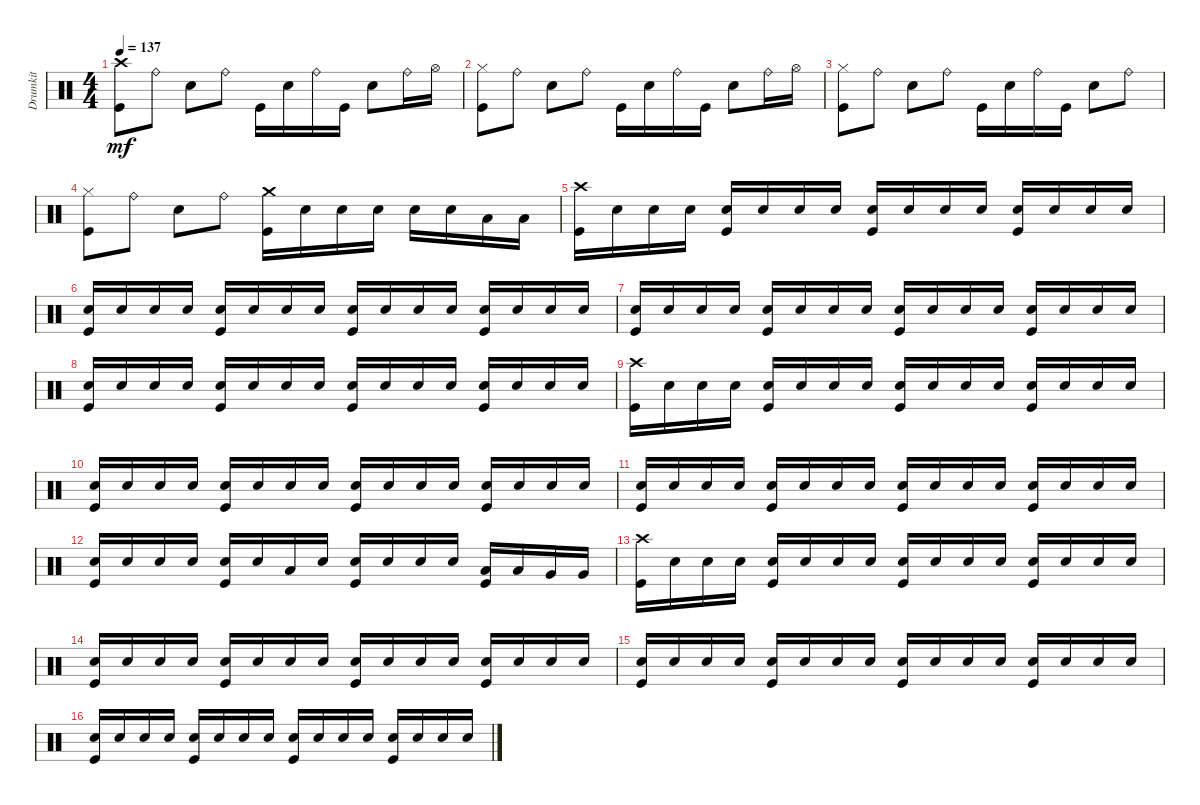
\track ("Drumkit" "Drumkit") {instrument percussion}
\staff {score}
\articulation defaults
\ts (4 4)
\tempo 137
\clef neutral
\ks c
("Crash high (hit)" "Kick (hit)").8{dy mf} "Ride (bell)".8 "Snare (hit) 2".8 "Ride (bell)".8 "Kick (hit)".16 "Snare (hit) 2".16 "Ride (bell)".16 "Kick (hit)".16 "Snare (hit) 2".8 "Ride (bell)".16 "Hi-Hat (open)".16 |
("Kick (hit)" "Hi-Hat (closed)").8 "Ride (bell)".8 "Snare (hit) 2".8 "Ride (bell)".8 "Kick (hit)".16 "Snare (hit) 2".16 "Ride (bell)".16 "Kick (hit)".16 "Snare (hit) 2".8 "Ride (bell)".16 "Hi-Hat (open)".16 |
("Kick (hit)" "Hi-Hat (closed)").8 "Ride (bell)".8 "Snare (hit) 2".8 "Ride (bell)".8 "Kick (hit)".16 "Snare (hit) 2".16 "Ride (bell)".16 "Kick (hit)".16 "Snare (hit) 2".8 "Ride (bell)".8 |
("Kick (hit)" "Hi-Hat (closed)").8 "Ride (bell)".8 "Snare (hit) 2".8 "Ride (bell)".8 ("Crash medium (hit)" "Kick (hit)").16 "Snare (hit) 2".16 "Snare (hit) 2".16 "Snare (hit) 2".16 "Snare (hit) 2".16 "Snare (hit) 2".16 "Low Tom (hit)".16 "Low Tom (hit)".16 |
("Crash high (hit)" "Kick (hit)").16 "Snare (hit) 2".16 "Snare (hit) 2".16 "Snare (hit) 2".16 ("Snare (hit) 2" "Kick (hit)").16 "Snare (hit) 2".16 "Snare (hit) 2".16 "Snare (hit) 2".16 ("Snare (hit) 2" "Kick (hit)").16 "Snare (hit) 2".16 "Snare (hit) 2".16 "Snare (hit) 2".16 ("Snare (hit) 2" "Kick (hit)").16 "Snare (hit) 2".16 "Snare (hit) 2".16 "Snare (hit) 2".16 |
("Snare (hit) 2" "Kick (hit)").16 "Snare (hit) 2".16 "Snare (hit) 2".16 "Snare (hit) 2".16 ("Snare (hit) 2" "Kick (hit)").16 "Snare (hit) 2".16 "Snare (hit) 2".16 "Snare (hit) 2".16 ("Snare (hit) 2" "Kick (hit)").16 "Snare (hit) 2".16 "Snare (hit) 2".16 "Snare (hit) 2".16 ("Snare (hit) 2" "Kick (hit)").16 "Snare (hit) 2".16 "Snare (hit) 2".16 "Snare (hit) 2".16 |
("Snare (hit) 2" "Kick (hit)").16 "Snare (hit) 2".16 "Snare (hit) 2".16 "Snare (hit) 2".16 ("Snare (hit) 2" "Kick (hit)").16 "Snare (hit) 2".16 "Snare (hit) 2".16 "Snare (hit) 2".16 ("Snare (hit) 2" "Kick (hit)").16 "Snare (hit) 2".16 "Snare (hit) 2".16 "Snare (hit) 2".16 ("Snare (hit) 2" "Kick (hit)").16 "Snare (hit) 2".16 "Snare (hit) 2".16 "Snare (hit) 2".16 |
("Snare (hit) 2" "Kick (hit)").16 "Snare (hit) 2".16 "Snare (hit) 2".16 "Snare (hit) 2".16 ("Snare (hit) 2" "Kick (hit)").16 "Snare (hit) 2".16 "Snare (hit) 2".16 "Snare (hit) 2".16 ("Snare (hit) 2" "Kick (hit)").16 "Snare (hit) 2".16 "Snare (hit) 2".16 "Snare (hit) 2".16 ("Snare (hit) 2" "Kick (hit)").16 "Snare (hit) 2".16 "Snare (hit) 2".16 "Snare (hit) 2".16 |
("Crash high (hit)" "Kick (hit)").16 "Snare (hit) 2".16 "Snare (hit) 2".16 "Snare (hit) 2".16 ("Snare (hit) 2" "Kick (hit)").16 "Snare (hit) 2".16 "Snare (hit) 2".16 "Snare (hit) 2".16 ("Snare (hit) 2" "Kick (hit)").16 "Snare (hit) 2".16 "Snare (hit) 2".16 "Snare (hit) 2".16 ("Snare (hit) 2" "Kick (hit)").16 "Snare (hit) 2".16 "Snare (hit) 2".16 "Snare (hit) 2".16 |
("Snare (hit) 2" "Kick (hit)").16 "Snare (hit) 2".16 "Snare (hit) 2".16 "Snare (hit) 2".16 ("Snare (hit) 2" "Kick (hit)").16 "Snare (hit) 2".16 "Snare (hit) 2".16 "Snare (hit) 2".16 ("Snare (hit) 2" "Kick (hit)").16 "Snare (hit) 2".16 "Snare (hit) 2".16 "Snare (hit) 2".16 ("Snare (hit) 2" "Kick (hit)").16 "Snare (hit) 2".16 "Snare (hit) 2".16 "Snare (hit) 2".16 |
("Snare (hit) 2" "Kick (hit)").16 "Snare (hit) 2".16 "Snare (hit) 2".16 "Snare (hit) 2".16 ("Snare (hit) 2" "Kick (hit)").16 "Snare (hit) 2".16 "Snare (hit) 2".16 "Snare (hit) 2".16 ("Snare (hit) 2" "Kick (hit)").16 "Snare (hit) 2".16 "Snare (hit) 2".16 "Snare (hit) 2".16 ("Snare (hit) 2" "Kick (hit)").16 "Snare (hit) 2".16 "Snare (hit) 2".16 "Snare (hit) 2".16 |
("Snare (hit) 2" "Kick (hit)").16 "Snare (hit) 2".16 "Snare (hit) 2".16 "Snare (hit) 2".16 ("Snare (hit) 2" "Kick (hit)").16 "Snare (hit) 2".16 "Low Tom (hit)".16 "Snare (hit) 2".16 ("Snare (hit) 2" "Kick (hit)").16 "Snare (hit) 2".16 "Snare (hit) 2".16 "Snare (hit) 2".16 ("Low Tom (hit)" "Kick (hit)").16 "Low Tom (hit)".16 "Very Low Tom (hit)".16 "Very Low Tom (hit)".16 |
("Crash high (hit)" "Kick (hit)").16 "Snare (hit) 2".16 "Snare (hit) 2".16 "Snare (hit) 2".16 ("Snare (hit) 2" "Kick (hit)").16 "Snare (hit) 2".16 "Snare (hit) 2".16 "Snare (hit) 2".16 ("Snare (hit) 2" "Kick (hit)").16 "Snare (hit) 2".16 "Snare (hit) 2".16 "Snare (hit) 2".16 ("Snare (hit) 2" "Kick (hit)").16 "Snare (hit) 2".16 "Snare (hit) 2".16 "Snare (hit) 2".16 |
("Snare (hit) 2" "Kick (hit)").16 "Snare (hit) 2".16 "Snare (hit) 2".16 "Snare (hit) 2".16 ("Snare (hit) 2" "Kick (hit)").16 "Snare (hit) 2".16 "Snare (hit) 2".16 "Snare (hit) 2".16 ("Snare (hit) 2" "Kick (hit)").16 "Snare (hit) 2".16 "Snare (hit) 2".16 "Snare (hit) 2".16 ("Snare (hit) 2" "Kick (hit)").16 "Snare (hit) 2".16 "Snare (hit) 2".16 "Snare (hit) 2".16 |
("Snare (hit) 2" "Kick (hit)").16 "Snare (hit) 2".16 "Snare (hit) 2".16 "Snare (hit) 2".16 ("Snare (hit) 2" "Kick (hit)").16 "Snare (hit) 2".16 "Snare (hit) 2".16 "Snare (hit) 2".16 ("Snare (hit) 2" "Kick (hit)").16 "Snare (hit) 2".16 "Snare (hit) 2".16 "Snare (hit) 2".16 ("Snare (hit) 2" "Kick (hit)").16 "Snare (hit) 2".16 "Snare (hit) 2".16 "Snare (hit) 2".16 |
("Snare (hit) 2" "Kick (hit)").16 "Snare (hit) 2".16 "Snare (hit) 2".16 "Snare (hit) 2".16 ("Snare (hit) 2" "Kick (hit)").16 "Snare (hit) 2".16 "Snare (hit) 2".16 "Snare (hit) 2".16 ("Snare (hit) 2" "Kick (hit)").16 "Snare (hit) 2".16 "Snare (hit) 2".16 "Snare (hit) 2".16 ("Snare (hit) 2" "Kick (hit)").16 "Snare (hit) 2".16 "Snare (hit) 2".16 "Snare (hit) 2".16
